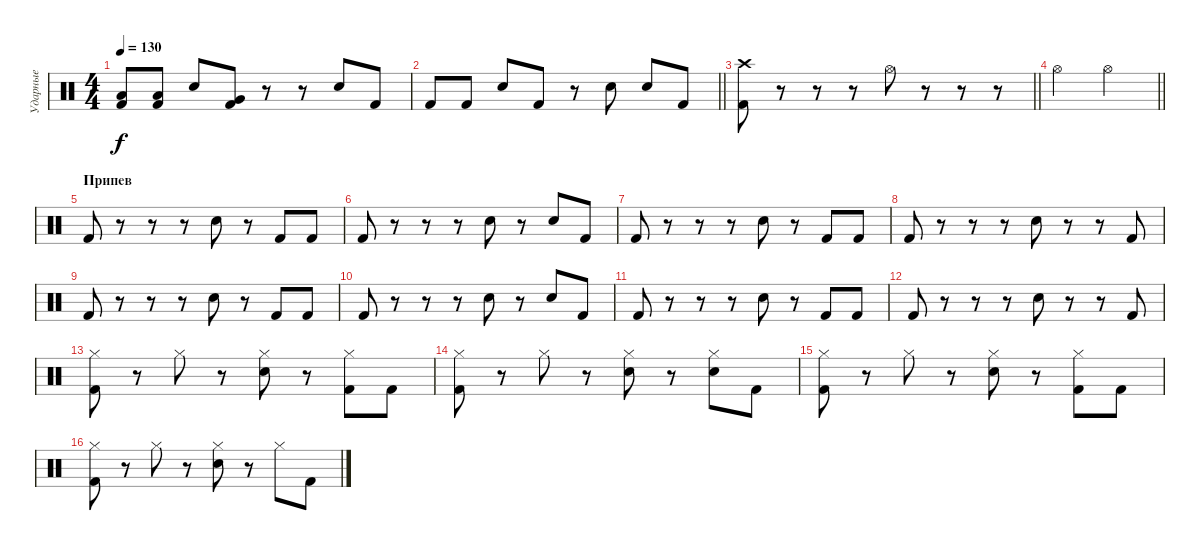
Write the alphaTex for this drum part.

\track ("Ударные" "Ударные") {instrument percussion}
\staff {score}
\articulation defaults
\ts (4 4)
\tempo 130
\clef neutral
\ks c
("Low Floor Tom (hit)" "Kick (hit) 2").8{dy f} ("Low Floor Tom (hit)" "Kick (hit) 2").8 "Snare (hit) 2".8 ("Very Low Tom (hit)" "Kick (hit) 2").8 r.8 r.8 "Snare (hit) 2".8 "Kick (hit) 2".8 |
\barLineRight lightlight "Kick (hit) 2".8 "Kick (hit) 2".8 "Snare (hit) 2".8 "Kick (hit) 2".8
r.8 "Snare (hit) 2".8 "Snare (hit) 2".8 "Kick (hit) 2".8 |
\barLineRight lightlight
("Crash high (hit)" "Kick (hit) 2").8 r.8 r.8 r.8 "Hi-Hat (open)".8 r.8 r.8 r.8 |
\barLineRight lightlight "Hi-Hat (open)".2 "Hi-Hat (open)".2
|
\section ("" "Припев")
"Kick (hit) 2".8 r.8 r.8 r.8 "Snare (hit) 2".8 r.8 "Kick (hit) 2".8 "Kick (hit) 2".8 |
"Kick (hit) 2".8 r.8 r.8 r.8 "Snare (hit) 2".8 r.8 "Snare (hit) 2".8 "Kick (hit) 2".8 |
"Kick (hit) 2".8 r.8 r.8 r.8 "Snare (hit) 2".8 r.8 "Kick (hit) 2".8 "Kick (hit) 2".8 |
"Kick (hit) 2".8 r.8 r.8 r.8 "Snare (hit) 2".8 r.8 r.8 "Kick (hit) 2".8 |
"Kick (hit) 2".8 r.8 r.8 r.8 "Snare (hit) 2".8 r.8 "Kick (hit) 2".8 "Kick (hit) 2".8 |
"Kick (hit) 2".8 r.8 r.8 r.8 "Snare (hit) 2".8 r.8 "Snare (hit) 2".8 "Kick (hit) 2".8 |
"Kick (hit) 2".8 r.8 r.8 r.8 "Snare (hit) 2".8 r.8 "Kick (hit) 2".8 "Kick (hit) 2".8 |
"Kick (hit) 2".8 r.8 r.8 r.8 "Snare (hit) 2".8 r.8 r.8 "Kick (hit) 2".8 |
("Hi-Hat (closed)" "Kick (hit) 2").8 r.8 "Hi-Hat (closed)".8 r.8 ("Hi-Hat (closed)" "Snare (hit) 2").8 r.8 ("Hi-Hat (closed)" "Kick (hit) 2").8 "Kick (hit) 2".8 |
("Hi-Hat (closed)" "Kick (hit) 2").8 r.8 "Hi-Hat (closed)".8 r.8 ("Hi-Hat (closed)" "Snare (hit) 2").8 r.8 ("Hi-Hat (closed)" "Snare (hit) 2").8 "Kick (hit) 2".8 |
("Hi-Hat (closed)" "Kick (hit) 2").8 r.8 "Hi-Hat (closed)".8 r.8 ("Hi-Hat (closed)" "Snare (hit) 2").8 r.8 ("Hi-Hat (closed)" "Kick (hit) 2").8 "Kick (hit) 2".8 |
("Hi-Hat (closed)" "Kick (hit) 2").8 r.8 "Hi-Hat (closed)".8 r.8 ("Hi-Hat (closed)" "Snare (hit) 2").8 r.8 "Hi-Hat (closed)".8 "Kick (hit) 2".8
